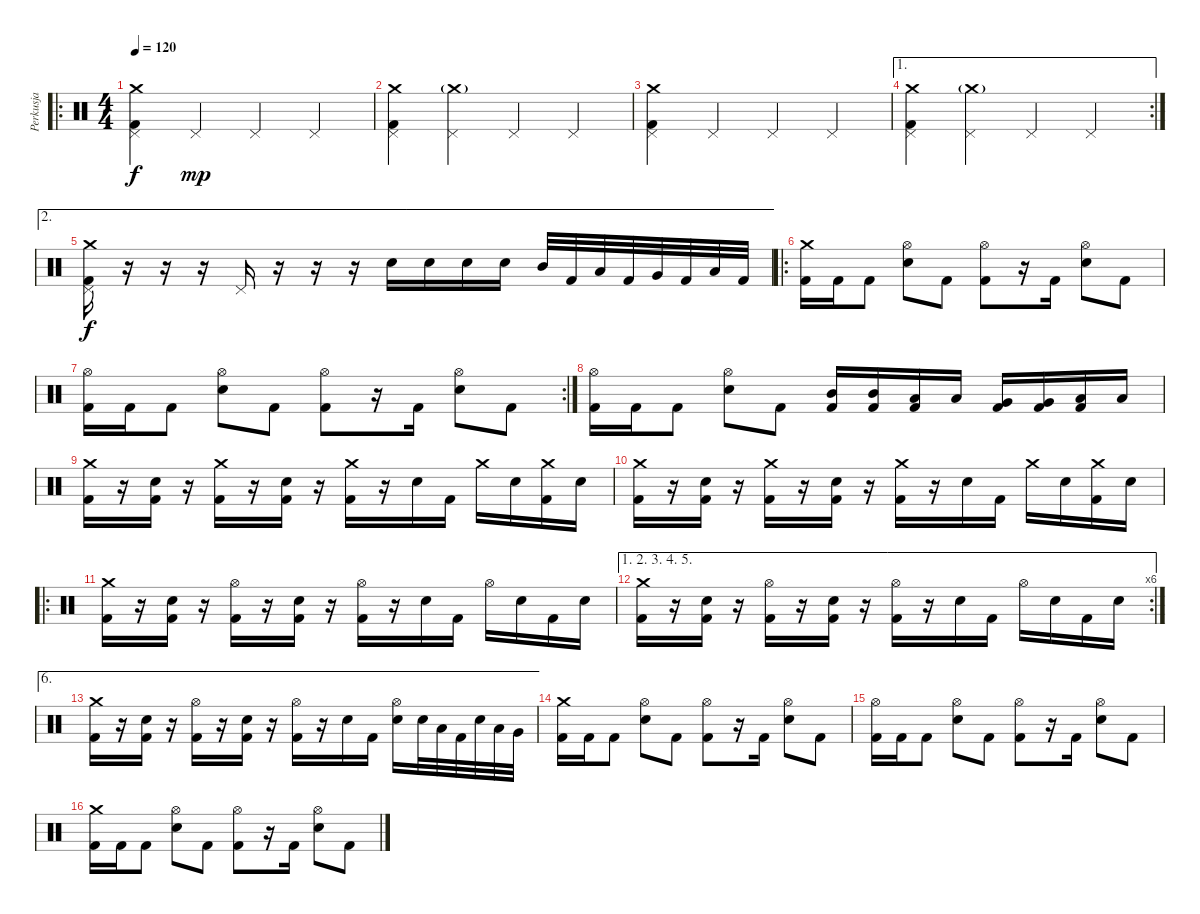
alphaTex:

\track ("Perkusja" "Perkusja") {instrument percussion}
\staff {score}
\articulation defaults
\ro
\ts (4 4)
\tempo 120
\clef neutral
\ks c
("Crash medium (hit)" "Pedal Hi-Hat (hit)" "Kick (hit) 2").4{dy f} "Pedal Hi-Hat (hit)".4{dy mp} "Pedal Hi-Hat (hit)".4 "Pedal Hi-Hat (hit)".4 |
("Crash medium (hit)" "Pedal Hi-Hat (hit)" "Kick (hit) 2").4 ("Crash medium (hit)"{g} "Pedal Hi-Hat (hit)").4 "Pedal Hi-Hat (hit)".4 "Pedal Hi-Hat (hit)".4 |
("Crash medium (hit)" "Pedal Hi-Hat (hit)" "Kick (hit) 2").4 "Pedal Hi-Hat (hit)".4 "Pedal Hi-Hat (hit)".4 "Pedal Hi-Hat (hit)".4 |
\ae 1
\rc 2
("Crash medium (hit)" "Pedal Hi-Hat (hit)" "Kick (hit) 2").4 ("Crash medium (hit)"{g} "Pedal Hi-Hat (hit)").4 "Pedal Hi-Hat (hit)".4 "Pedal Hi-Hat (hit)".4 |
\ae 2
("Crash medium (hit)" "Pedal Hi-Hat (hit)" "Kick (hit) 2").16{dy f} r.16 r.16 r.16 "Pedal Hi-Hat (hit)".16 r.16 r.16 r.16 "Snare (hit) 2".16 "Snare (hit) 2".16 "Snare (hit) 2".16 "Snare (hit) 2".16 "Mid Tom (hit)".32 "Kick (hit) 2".32 "Low Tom (hit)".32 "Kick (hit) 2".32 "Very Low Tom (hit)".32 "Kick (hit) 2".32 "Low Floor Tom (hit)".32 "Kick (hit) 2".32 |
\ro
("Crash medium (hit)" "Kick (hit) 2").16 "Kick (hit) 2".16 "Kick (hit) 2".8 ("Hi-Hat (open)" "Snare (hit) 2").8 "Kick (hit) 2".8 ("Hi-Hat (open)" "Kick (hit) 2").8 r.16 "Kick (hit) 2".16 ("Hi-Hat (open)" "Snare (hit) 2").8 "Kick (hit) 2".8 |
\rc 2
("Hi-Hat (open)" "Kick (hit) 2").16 "Kick (hit) 2".16 "Kick (hit) 2".8 ("Hi-Hat (open)" "Snare (hit) 2").8 "Kick (hit) 2".8 ("Hi-Hat (open)" "Kick (hit) 2").8 r.16 "Kick (hit) 2".16 ("Hi-Hat (open)" "Snare (hit) 2").8 "Kick (hit) 2".8 |
("Hi-Hat (open)" "Kick (hit) 2").16 "Kick (hit) 2".16 "Kick (hit) 2".8 ("Hi-Hat (open)" "Snare (hit) 2").8 "Kick (hit) 2".8 ("Mid Tom (hit)" "Kick (hit) 2").16 ("Mid Tom (hit)" "Kick (hit) 2").16 ("Low Tom (hit)" "Kick (hit) 2").16 "Low Tom (hit)".16 ("Very Low Tom (hit)" "Kick (hit) 2").16 ("Very Low Tom (hit)" "Kick (hit) 2").16 ("Low Floor Tom (hit)" "Kick (hit) 2").16 "Low Floor Tom (hit)".16 |
("Crash medium (hit)" "Kick (hit) 2").16 r.16 ("Snare (hit) 2" "Kick (hit) 2").16 r.16 ("Crash medium (hit)" "Kick (hit) 2").16 r.16 ("Snare (hit) 2" "Kick (hit) 2").16 r.16 ("Crash medium (hit)" "Kick (hit) 2").16 r.16 "Snare (hit) 2".16 "Kick (hit) 2".16 "Crash medium (hit)".16 "Snare (hit) 2".16 ("Crash medium (hit)" "Kick (hit) 2").16 "Snare (hit) 2".16 |
("Crash medium (hit)" "Kick (hit) 2").16 r.16 ("Snare (hit) 2" "Kick (hit) 2").16 r.16 ("Crash medium (hit)" "Kick (hit) 2").16 r.16 ("Snare (hit) 2" "Kick (hit) 2").16 r.16 ("Crash medium (hit)" "Kick (hit) 2").16 r.16 "Snare (hit) 2".16 "Kick (hit) 2".16 "Crash medium (hit)".16 "Snare (hit) 2".16 ("Crash medium (hit)" "Kick (hit) 2").16 "Snare (hit) 2".16 |
\ro
("Crash medium (hit)" "Kick (hit) 2").16 r.16 ("Snare (hit) 2" "Kick (hit) 2").16 r.16 ("Hi-Hat (open)" "Kick (hit) 2").16 r.16 ("Snare (hit) 2" "Kick (hit) 2").16 r.16 ("Hi-Hat (open)" "Kick (hit) 2").16 r.16 "Snare (hit) 2".16 "Kick (hit) 2".16 "Hi-Hat (open)".16 "Snare (hit) 2".16 "Kick (hit) 2".16 "Snare (hit) 2".16 |
\ae (1 2 3 4 5)
\rc 6
("Crash medium (hit)" "Kick (hit) 2").16 r.16 ("Snare (hit) 2" "Kick (hit) 2").16 r.16 ("Hi-Hat (open)" "Kick (hit) 2").16 r.16 ("Snare (hit) 2" "Kick (hit) 2").16 r.16 ("Hi-Hat (open)" "Kick (hit) 2").16 r.16 "Snare (hit) 2".16 "Kick (hit) 2".16 "Hi-Hat (open)".16 "Snare (hit) 2".16 "Kick (hit) 2".16 "Snare (hit) 2".16 |
\ae 6
("Crash medium (hit)" "Kick (hit) 2").16 r.16 ("Snare (hit) 2" "Kick (hit) 2").16 r.16 ("Hi-Hat (open)" "Kick (hit) 2").16 r.16 ("Snare (hit) 2" "Kick (hit) 2").16 r.16 ("Hi-Hat (open)" "Kick (hit) 2").16 r.16 "Snare (hit) 2".16 "Kick (hit) 2".16 ("Hi-Hat (open)" "Snare (hit) 2").16 "Snare (hit) 2".32 "Low Tom (hit)".32 "Kick (hit) 2".32 "Snare (hit) 2".32 "Low Tom (hit)".32 "Very Low Tom (hit)".32 |
("Crash medium (hit)" "Kick (hit) 2").16 "Kick (hit) 2".16 "Kick (hit) 2".8 ("Hi-Hat (open)" "Snare (hit) 2").8 "Kick (hit) 2".8 ("Hi-Hat (open)" "Kick (hit) 2").8 r.16 "Kick (hit) 2".16 ("Hi-Hat (open)" "Snare (hit) 2").8 "Kick (hit) 2".8 |
("Hi-Hat (open)" "Kick (hit) 2").16 "Kick (hit) 2".16 "Kick (hit) 2".8 ("Hi-Hat (open)" "Snare (hit) 2").8 "Kick (hit) 2".8 ("Hi-Hat (open)" "Kick (hit) 2").8 r.16 "Kick (hit) 2".16 ("Hi-Hat (open)" "Snare (hit) 2").8 "Kick (hit) 2".8 |
("Crash medium (hit)" "Kick (hit) 2").16 "Kick (hit) 2".16 "Kick (hit) 2".8 ("Hi-Hat (open)" "Snare (hit) 2").8 "Kick (hit) 2".8 ("Hi-Hat (open)" "Kick (hit) 2").8 r.16 "Kick (hit) 2".16 ("Hi-Hat (open)" "Snare (hit) 2").8 "Kick (hit) 2".8
